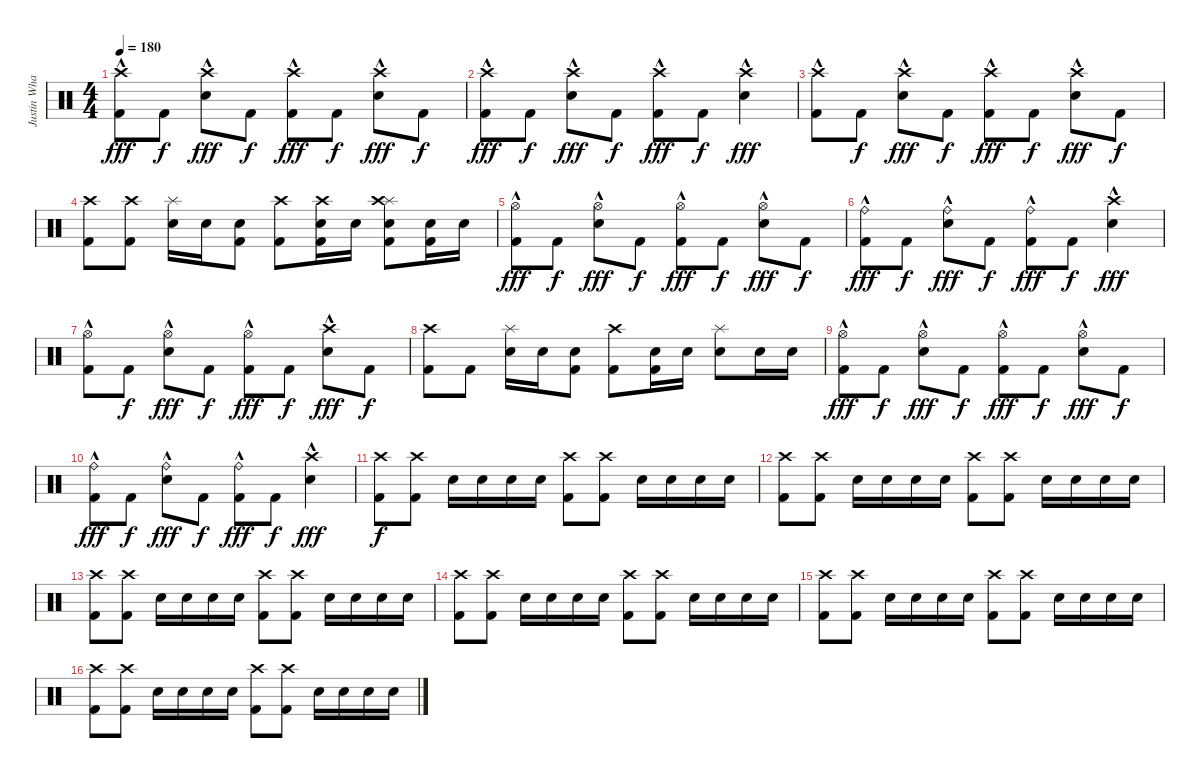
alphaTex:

\track ("Justin Wharton" "Justin Wha") {instrument percussion}
\staff {score}
\articulation defaults
\ts (4 4)
\tempo 180
\clef neutral
\ks c
("Kick (hit) 2" "Crash high (hit)"{hac}).8{dy fff} "Kick (hit) 2".8{dy f} ("Electric Snare (hit)" "Crash high (hit)"{hac}).8{dy fff} "Kick (hit) 2".8{dy f} ("Kick (hit) 2" "Crash high (hit)"{hac}).8{dy fff} "Kick (hit) 2".8{dy f} ("Electric Snare (hit)" "Crash high (hit)"{hac}).8{dy fff} "Kick (hit) 2".8{dy f} |
("Kick (hit) 2" "Crash high (hit)"{hac}).8{dy fff} "Kick (hit) 2".8{dy f} ("Electric Snare (hit)" "Crash high (hit)"{hac}).8{dy fff} "Kick (hit) 2".8{dy f} ("Kick (hit) 2" "Crash high (hit)"{hac}).8{dy fff} "Kick (hit) 2".8{dy f} ("Electric Snare (hit)" "Crash high (hit)"{hac}).4{dy fff} |
("Kick (hit) 2" "Crash high (hit)"{hac}).8 "Kick (hit) 2".8{dy f} ("Electric Snare (hit)" "Crash high (hit)"{hac}).8{dy fff} "Kick (hit) 2".8{dy f} ("Kick (hit) 2" "Crash high (hit)"{hac}).8{dy fff} "Kick (hit) 2".8{dy f} ("Electric Snare (hit)" "Crash high (hit)"{hac}).8{dy fff} "Kick (hit) 2".8{dy f} |
("Kick (hit) 2" "Crash high (hit)").8 ("Kick (hit) 2" "Crash high (hit)").8 ("Electric Snare (hit)" "Splash (hit)").16 "Electric Snare (hit)".16 ("Kick (hit) 2" "Electric Snare (hit)").8 ("Kick (hit) 2" "Crash high (hit)").8 ("Kick (hit) 2" "Electric Snare (hit)" "Crash high (hit)").16 "Electric Snare (hit)".16 ("Kick (hit) 2" "Electric Snare (hit)" "Splash (hit)" "Crash high (hit)").8 ("Kick (hit) 2" "Electric Snare (hit)").16 "Electric Snare (hit)".16 |
("Kick (hit) 2" "Hi-Hat (open)"{hac}).8{dy fff} "Kick (hit) 2".8{dy f} ("Electric Snare (hit)" "Hi-Hat (open)"{hac}).8{dy fff} "Kick (hit) 2".8{dy f} ("Kick (hit) 2" "Hi-Hat (open)"{hac}).8{dy fff} "Kick (hit) 2".8{dy f} ("Electric Snare (hit)" "Hi-Hat (open)"{hac}).8{dy fff} "Kick (hit) 2".8{dy f} |
("Kick (hit) 2" "Ride (bell)"{hac}).8{dy fff} "Kick (hit) 2".8{dy f} ("Electric Snare (hit)" "Ride (bell)"{hac}).8{dy fff} "Kick (hit) 2".8{dy f} ("Kick (hit) 2" "Ride (bell)"{hac}).8{dy fff} "Kick (hit) 2".8{dy f} ("Electric Snare (hit)" "Crash high (hit)"{hac}).4{dy fff} |
("Kick (hit) 2" "Hi-Hat (open)"{hac}).8 "Kick (hit) 2".8{dy f} ("Electric Snare (hit)" "Hi-Hat (open)"{hac}).8{dy fff} "Kick (hit) 2".8{dy f} ("Kick (hit) 2" "Hi-Hat (open)"{hac}).8{dy fff} "Kick (hit) 2".8{dy f} ("Electric Snare (hit)" "Crash high (hit)"{hac}).8{dy fff} "Kick (hit) 2".8{dy f} |
("Kick (hit) 2" "Crash high (hit)").8 "Kick (hit) 2".8 ("Electric Snare (hit)" "Splash (hit)").16 "Electric Snare (hit)".16 ("Kick (hit) 2" "Electric Snare (hit)").8 ("Kick (hit) 2" "Crash high (hit)").8 ("Kick (hit) 2" "Electric Snare (hit)").16 "Electric Snare (hit)".16 ("Electric Snare (hit)" "Splash (hit)").8 "Electric Snare (hit)".16 "Electric Snare (hit)".16 |
("Kick (hit) 2" "Hi-Hat (open)"{hac}).8{dy fff} "Kick (hit) 2".8{dy f} ("Electric Snare (hit)" "Hi-Hat (open)"{hac}).8{dy fff} "Kick (hit) 2".8{dy f} ("Kick (hit) 2" "Hi-Hat (open)"{hac}).8{dy fff} "Kick (hit) 2".8{dy f} ("Electric Snare (hit)" "Hi-Hat (open)"{hac}).8{dy fff} "Kick (hit) 2".8{dy f} |
("Kick (hit) 2" "Ride (bell)"{hac}).8{dy fff} "Kick (hit) 2".8{dy f} ("Electric Snare (hit)" "Ride (bell)"{hac}).8{dy fff} "Kick (hit) 2".8{dy f} ("Kick (hit) 2" "Ride (bell)"{hac}).8{dy fff} "Kick (hit) 2".8{dy f} ("Electric Snare (hit)" "Crash high (hit)"{hac}).4{dy fff} |
("Kick (hit) 2" "Crash high (hit)").8{dy f} ("Kick (hit) 2" "Crash high (hit)").8 "Electric Snare (hit)".16 "Electric Snare (hit)".16 "Electric Snare (hit)".16 "Electric Snare (hit)".16 ("Kick (hit) 2" "Crash high (hit)").8 ("Kick (hit) 2" "Crash high (hit)").8 "Electric Snare (hit)".16 "Electric Snare (hit)".16 "Electric Snare (hit)".16 "Electric Snare (hit)".16 |
("Kick (hit) 2" "Crash high (hit)").8 ("Kick (hit) 2" "Crash high (hit)").8 "Electric Snare (hit)".16 "Electric Snare (hit)".16 "Electric Snare (hit)".16 "Electric Snare (hit)".16 ("Kick (hit) 2" "Crash high (hit)").8 ("Kick (hit) 2" "Crash high (hit)").8 "Electric Snare (hit)".16 "Electric Snare (hit)".16 "Electric Snare (hit)".16 "Electric Snare (hit)".16 |
("Kick (hit) 2" "Crash high (hit)").8 ("Kick (hit) 2" "Crash high (hit)").8 "Electric Snare (hit)".16 "Electric Snare (hit)".16 "Electric Snare (hit)".16 "Electric Snare (hit)".16 ("Kick (hit) 2" "Crash high (hit)").8 ("Kick (hit) 2" "Crash high (hit)").8 "Electric Snare (hit)".16 "Electric Snare (hit)".16 "Electric Snare (hit)".16 "Electric Snare (hit)".16 |
("Kick (hit) 2" "Crash high (hit)").8 ("Kick (hit) 2" "Crash high (hit)").8 "Electric Snare (hit)".16 "Electric Snare (hit)".16 "Electric Snare (hit)".16 "Electric Snare (hit)".16 ("Kick (hit) 2" "Crash high (hit)").8 ("Kick (hit) 2" "Crash high (hit)").8 "Electric Snare (hit)".16 "Electric Snare (hit)".16 "Electric Snare (hit)".16 "Electric Snare (hit)".16 |
("Kick (hit) 2" "Crash high (hit)").8 ("Kick (hit) 2" "Crash high (hit)").8 "Electric Snare (hit)".16 "Electric Snare (hit)".16 "Electric Snare (hit)".16 "Electric Snare (hit)".16 ("Kick (hit) 2" "Crash high (hit)").8 ("Kick (hit) 2" "Crash high (hit)").8 "Electric Snare (hit)".16 "Electric Snare (hit)".16 "Electric Snare (hit)".16 "Electric Snare (hit)".16 |
("Kick (hit) 2" "Crash high (hit)").8 ("Kick (hit) 2" "Crash high (hit)").8 "Electric Snare (hit)".16 "Electric Snare (hit)".16 "Electric Snare (hit)".16 "Electric Snare (hit)".16 ("Kick (hit) 2" "Crash high (hit)").8 ("Kick (hit) 2" "Crash high (hit)").8 "Electric Snare (hit)".16 "Electric Snare (hit)".16 "Electric Snare (hit)".16 "Electric Snare (hit)".16
